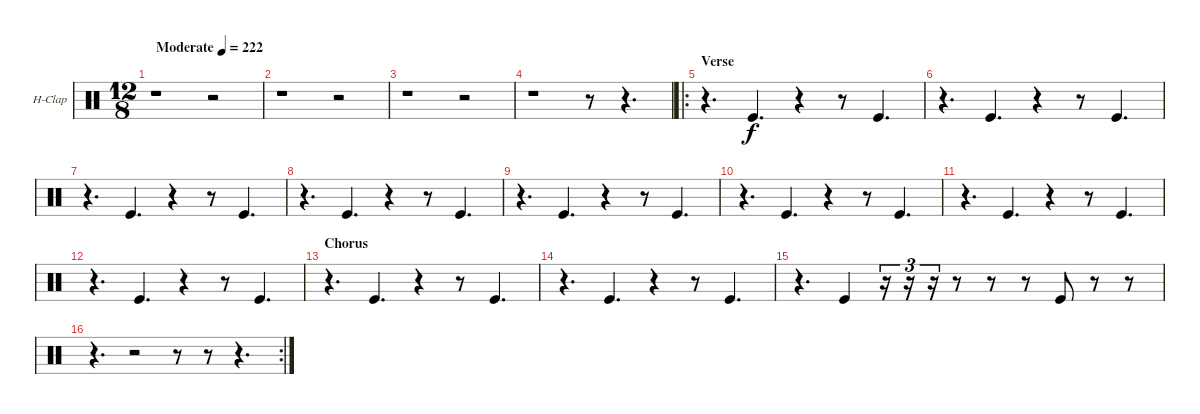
\bracketExtendMode nobrackets
\firstSystemTrackNameOrientation horizontal
\otherSystemsTrackNameOrientation horizontal
\track ("Hand Clap" "H-Clap") {instrument percussion}
\staff {score}
\articulation defaults
\ts (12 8)
\beaming (8 2 2 2 6)
\tempo (222 "Moderate")
\clef neutral
\ks c
r.1{dy f} r.2 |
r.1 r.2 |
r.1 r.2 |
r.1 r.8 r.4{d} |
\ro
\section ("" "Verse")
r.4{d} "Kick (hit)".4{d} r.4 r.8 "Kick (hit)".4{d} |
r.4{d} "Kick (hit)".4{d} r.4 r.8 "Kick (hit)".4{d} |
r.4{d} "Kick (hit)".4{d} r.4 r.8 "Kick (hit)".4{d} |
r.4{d} "Kick (hit)".4{d} r.4 r.8 "Kick (hit)".4{d} |
r.4{d} "Kick (hit)".4{d} r.4 r.8 "Kick (hit)".4{d} |
r.4{d} "Kick (hit)".4{d} r.4 r.8 "Kick (hit)".4{d} |
r.4{d} "Kick (hit)".4{d} r.4 r.8 "Kick (hit)".4{d} |
r.4{d} "Kick (hit)".4{d} r.4 r.8 "Kick (hit)".4{d} |
\section ("" "Chorus")
r.4{d} "Kick (hit)".4{d} r.4 r.8 "Kick (hit)".4{d} |
r.4{d} "Kick (hit)".4{d} r.4 r.8 "Kick (hit)".4{d} |
r.4{d} "Kick (hit)".4 r.16{tu (3 2)} r.16{tu (3 2)} r.16{tu (3 2)} r.8 r.8 r.8 "Kick (hit)".8 r.8 r.8 |
\rc 2
r.4{d} r.2 r.8 r.8 r.4{d}
